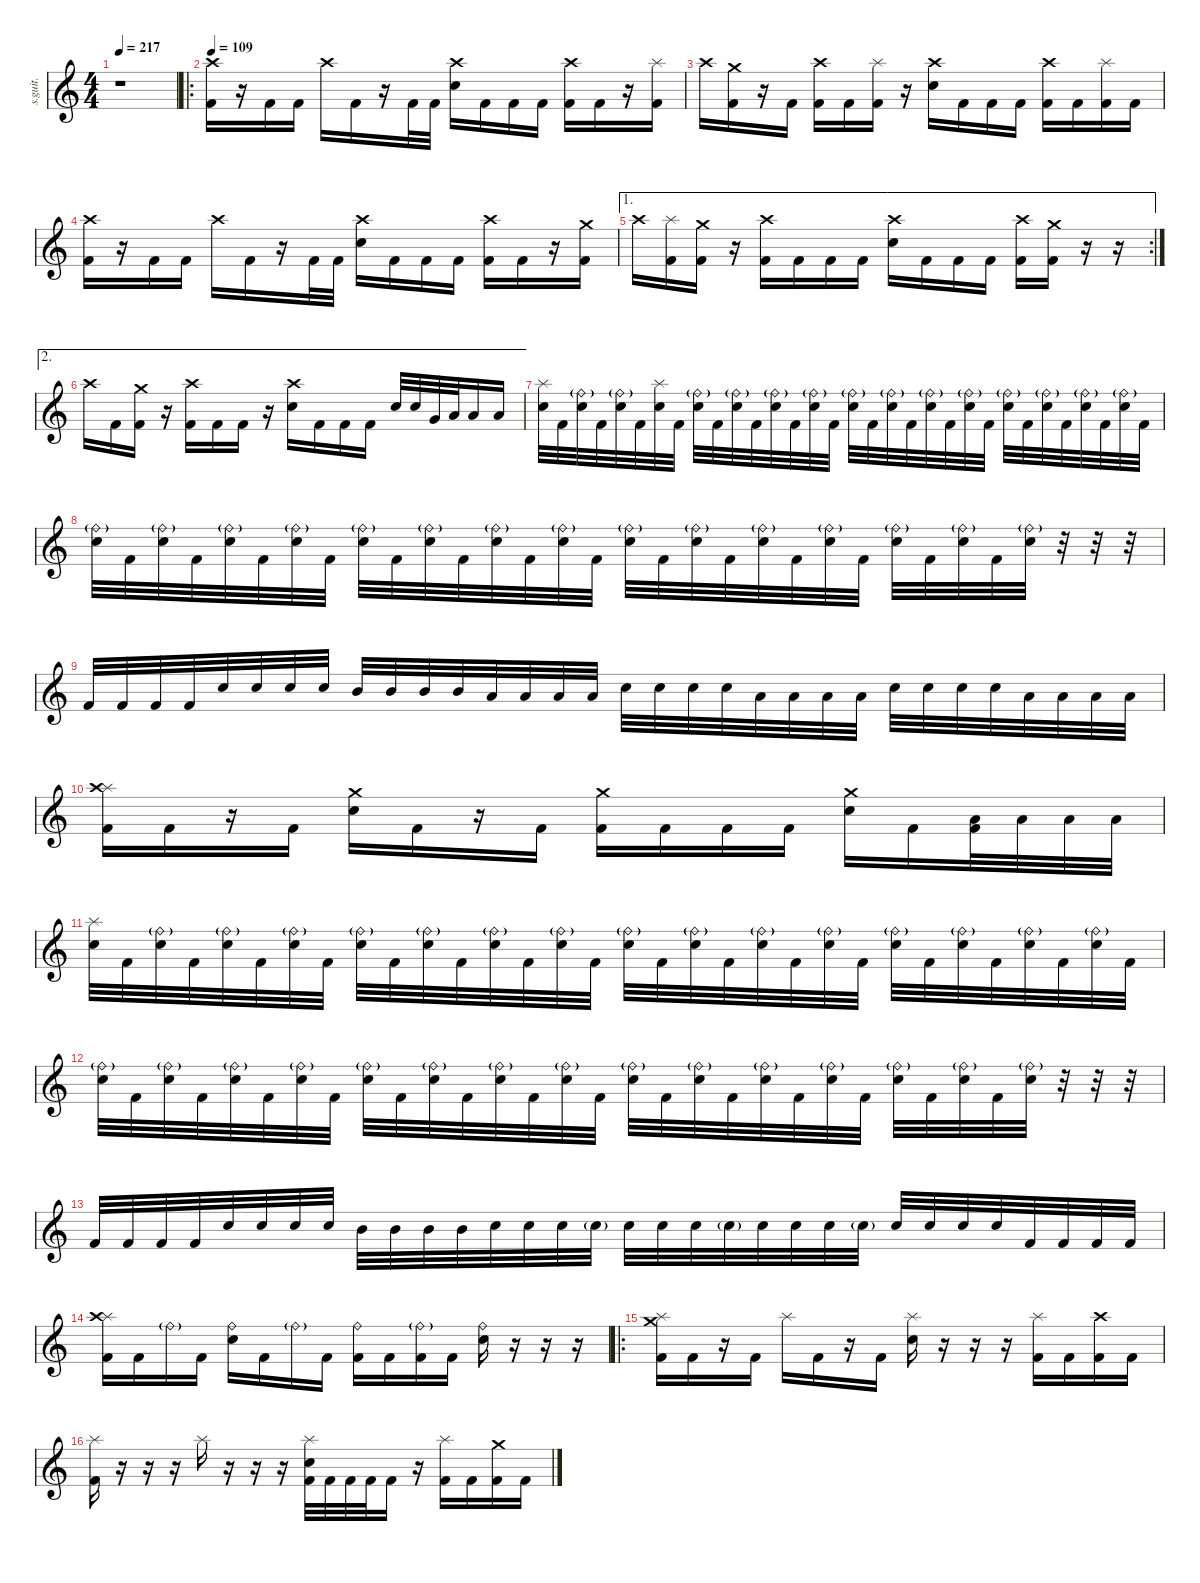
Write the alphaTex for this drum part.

\defaultSystemsLayout 4
\hideDynamics
\bracketExtendMode nobrackets
\track ("Drumkit" "s.guit.") {instrument percussion}
\staff {score}
\articulation defaults
\ts (4 4)
\tempo 217
\clef g2
\ks c
r.1{dy f} |
\ro
\tempo 109
("Crash high (hit)" "Kick (hit) 2").16{lyrics (0 "") lyrics (1 "") lyrics (2 "") lyrics (3 "") lyrics (4 "")} r.16 "Kick (hit) 2".16{lyrics (0 "") lyrics (1 "") lyrics (2 "") lyrics (3 "") lyrics (4 "")} "Kick (hit) 2".16{lyrics (0 "") lyrics (1 "") lyrics (2 "") lyrics (3 "") lyrics (4 "")} "Crash high (hit)".16{lyrics (0 "") lyrics (1 "") lyrics (2 "") lyrics (3 "") lyrics (4 "")} "Kick (hit) 2".16{lyrics (0 "") lyrics (1 "") lyrics (2 "") lyrics (3 "") lyrics (4 "")} r.16 "Kick (hit) 2".32{lyrics (0 "") lyrics (1 "") lyrics (2 "") lyrics (3 "") lyrics (4 "")} "Kick (hit) 2".32{lyrics (0 "") lyrics (1 "") lyrics (2 "") lyrics (3 "") lyrics (4 "")} ("Crash high (hit)" "Electric Snare (hit)").16{lyrics (0 "") lyrics (1 "") lyrics (2 "") lyrics (3 "") lyrics (4 "")} "Kick (hit) 2".16{lyrics (0 "") lyrics (1 "") lyrics (2 "") lyrics (3 "") lyrics (4 "")} "Kick (hit) 2".16{lyrics (0 "") lyrics (1 "") lyrics (2 "") lyrics (3 "") lyrics (4 "")} "Kick (hit) 2".16{lyrics (0 "") lyrics (1 "") lyrics (2 "") lyrics (3 "") lyrics (4 "")} ("Crash high (hit)" "Kick (hit) 2").16{lyrics (0 "") lyrics (1 "") lyrics (2 "") lyrics (3 "") lyrics (4 "")} "Kick (hit) 2".16{lyrics (0 "") lyrics (1 "") lyrics (2 "") lyrics (3 "") lyrics (4 "")} r.16 ("Splash (hit)" "Kick (hit) 2").16{lyrics (0 "") lyrics (1 "") lyrics (2 "") lyrics (3 "") lyrics (4 "")} |
"Crash high (hit)".16{lyrics (0 "") lyrics (1 "") lyrics (2 "") lyrics (3 "") lyrics (4 "")} ("Crash medium (hit)" "Kick (hit) 2").16{lyrics (0 "") lyrics (1 "") lyrics (2 "") lyrics (3 "") lyrics (4 "")} r.16 "Kick (hit) 2".16{lyrics (0 "") lyrics (1 "") lyrics (2 "") lyrics (3 "") lyrics (4 "")} ("Crash high (hit)" "Kick (hit) 2").16{lyrics (0 "") lyrics (1 "") lyrics (2 "") lyrics (3 "") lyrics (4 "")} "Kick (hit) 2".16{lyrics (0 "") lyrics (1 "") lyrics (2 "") lyrics (3 "") lyrics (4 "")} ("Splash (hit)" "Kick (hit) 2").16{lyrics (0 "") lyrics (1 "") lyrics (2 "") lyrics (3 "") lyrics (4 "")} r.16 ("Crash high (hit)" "Electric Snare (hit)").16{lyrics (0 "") lyrics (1 "") lyrics (2 "") lyrics (3 "") lyrics (4 "")} "Kick (hit) 2".16{lyrics (0 "") lyrics (1 "") lyrics (2 "") lyrics (3 "") lyrics (4 "")} "Kick (hit) 2".16{lyrics (0 "") lyrics (1 "") lyrics (2 "") lyrics (3 "") lyrics (4 "")} "Kick (hit) 2".16{lyrics (0 "") lyrics (1 "") lyrics (2 "") lyrics (3 "") lyrics (4 "")} ("Crash high (hit)" "Kick (hit) 2").16{lyrics (0 "") lyrics (1 "") lyrics (2 "") lyrics (3 "") lyrics (4 "")} "Kick (hit) 2".16{lyrics (0 "") lyrics (1 "") lyrics (2 "") lyrics (3 "") lyrics (4 "")} ("Splash (hit)" "Kick (hit) 2").16{lyrics (0 "") lyrics (1 "") lyrics (2 "") lyrics (3 "") lyrics (4 "")} "Kick (hit) 2".16{lyrics (0 "") lyrics (1 "") lyrics (2 "") lyrics (3 "") lyrics (4 "")} |
("Crash high (hit)" "Kick (hit) 2").16{lyrics (0 "") lyrics (1 "") lyrics (2 "") lyrics (3 "") lyrics (4 "")} r.16 "Kick (hit) 2".16{lyrics (0 "") lyrics (1 "") lyrics (2 "") lyrics (3 "") lyrics (4 "")} "Kick (hit) 2".16{lyrics (0 "") lyrics (1 "") lyrics (2 "") lyrics (3 "") lyrics (4 "")} "Crash high (hit)".16{lyrics (0 "") lyrics (1 "") lyrics (2 "") lyrics (3 "") lyrics (4 "")} "Kick (hit) 2".16{lyrics (0 "") lyrics (1 "") lyrics (2 "") lyrics (3 "") lyrics (4 "")} r.16 "Kick (hit) 2".32{lyrics (0 "") lyrics (1 "") lyrics (2 "") lyrics (3 "") lyrics (4 "")} "Kick (hit) 2".32{lyrics (0 "") lyrics (1 "") lyrics (2 "") lyrics (3 "") lyrics (4 "")} ("Crash high (hit)" "Electric Snare (hit)").16{lyrics (0 "") lyrics (1 "") lyrics (2 "") lyrics (3 "") lyrics (4 "")} "Kick (hit) 2".16{lyrics (0 "") lyrics (1 "") lyrics (2 "") lyrics (3 "") lyrics (4 "")} "Kick (hit) 2".16{lyrics (0 "") lyrics (1 "") lyrics (2 "") lyrics (3 "") lyrics (4 "")} "Kick (hit) 2".16{lyrics (0 "") lyrics (1 "") lyrics (2 "") lyrics (3 "") lyrics (4 "")} ("Crash high (hit)" "Kick (hit) 2").16{lyrics (0 "") lyrics (1 "") lyrics (2 "") lyrics (3 "") lyrics (4 "")} "Kick (hit) 2".16{lyrics (0 "") lyrics (1 "") lyrics (2 "") lyrics (3 "") lyrics (4 "")} r.16 ("Crash medium (hit)" "Kick (hit) 2").16{lyrics (0 "") lyrics (1 "") lyrics (2 "") lyrics (3 "") lyrics (4 "")} |
\ae 1
\rc 2 "Crash high (hit)".16{lyrics (0 "") lyrics (1 "") lyrics (2 "") lyrics (3 "") lyrics (4 "")}
("Splash (hit)" "Kick (hit) 2").16{lyrics (0 "") lyrics (1 "") lyrics (2 "") lyrics (3 "") lyrics (4 "")} ("Crash medium (hit)" "Kick (hit) 2").16{lyrics (0 "") lyrics (1 "") lyrics (2 "") lyrics (3 "") lyrics (4 "")} r.16 ("Crash high (hit)" "Kick (hit) 2").16{lyrics (0 "") lyrics (1 "") lyrics (2 "") lyrics (3 "") lyrics (4 "")} "Kick (hit) 2".16{lyrics (0 "") lyrics (1 "") lyrics (2 "") lyrics (3 "") lyrics (4 "")} "Kick (hit) 2".16{lyrics (0 "") lyrics (1 "") lyrics (2 "") lyrics (3 "") lyrics (4 "")} "Kick (hit) 2".16{lyrics (0 "") lyrics (1 "") lyrics (2 "") lyrics (3 "") lyrics (4 "")} ("Crash high (hit)" "Electric Snare (hit)").16{lyrics (0 "") lyrics (1 "") lyrics (2 "") lyrics (3 "") lyrics (4 "")} "Kick (hit) 2".16{lyrics (0 "") lyrics (1 "") lyrics (2 "") lyrics (3 "") lyrics (4 "")} "Kick (hit) 2".16{lyrics (0 "") lyrics (1 "") lyrics (2 "") lyrics (3 "") lyrics (4 "")} "Kick (hit) 2".16{lyrics (0 "") lyrics (1 "") lyrics (2 "") lyrics (3 "") lyrics (4 "")} ("Crash high (hit)" "Kick (hit) 2").16{lyrics (0 "") lyrics (1 "") lyrics (2 "") lyrics (3 "") lyrics (4 "")} ("Crash medium (hit)" "Kick (hit) 2").16{lyrics (0 "") lyrics (1 "") lyrics (2 "") lyrics (3 "") lyrics (4 "")} r.16 r.16 |
\ae 2 "Crash high (hit)".16{lyrics (0 "") lyrics (1 "") lyrics (2 "") lyrics (3 "") lyrics (4 "")} "Kick (hit) 2".16{lyrics (0 "") lyrics (1 "") lyrics (2 "") lyrics (3 "") lyrics (4 "")}
("Crash medium (hit)" "Kick (hit) 2").16{lyrics (0 "") lyrics (1 "") lyrics (2 "") lyrics (3 "") lyrics (4 "")} r.16 ("Crash high (hit)" "Kick (hit) 2").16{lyrics (0 "") lyrics (1 "") lyrics (2 "") lyrics (3 "") lyrics (4 "")} "Kick (hit) 2".16{lyrics (0 "") lyrics (1 "") lyrics (2 "") lyrics (3 "") lyrics (4 "")} "Kick (hit) 2".16{lyrics (0 "") lyrics (1 "") lyrics (2 "") lyrics (3 "") lyrics (4 "")} r.16 ("Crash high (hit)" "Electric Snare (hit)").16{lyrics (0 "") lyrics (1 "") lyrics (2 "") lyrics (3 "") lyrics (4 "")} "Kick (hit) 2".16{lyrics (0 "") lyrics (1 "") lyrics (2 "") lyrics (3 "") lyrics (4 "")} "Kick (hit) 2".16{lyrics (0 "") lyrics (1 "") lyrics (2 "") lyrics (3 "") lyrics (4 "")} "Kick (hit) 2".16{lyrics (0 "") lyrics (1 "") lyrics (2 "") lyrics (3 "") lyrics (4 "")} "Electric Snare (hit)".32{lyrics (0 "") lyrics (1 "") lyrics (2 "") lyrics (3 "") lyrics (4 "")} "Electric Snare (hit)".32{lyrics (0 "") lyrics (1 "") lyrics (2 "") lyrics (3 "") lyrics (4 "")} "Very Low Tom (hit)".32{lyrics (0 "") lyrics (1 "") lyrics (2 "") lyrics (3 "") lyrics (4 "")} "Low Floor Tom (hit)".32{lyrics (0 "") lyrics (1 "") lyrics (2 "") lyrics (3 "") lyrics (4 "")} "Low Floor Tom (hit)".16{lyrics (0 "") lyrics (1 "") lyrics (2 "") lyrics (3 "") lyrics (4 "")} "Low Floor Tom (hit)".16{lyrics (0 "") lyrics (1 "") lyrics (2 "") lyrics (3 "") lyrics (4 "")} |
("Splash (hit)" "Electric Snare (hit)").32{lyrics (0 "") lyrics (1 "") lyrics (2 "") lyrics (3 "") lyrics (4 "")} "Kick (hit) 2".32{lyrics (0 "") lyrics (1 "") lyrics (2 "") lyrics (3 "") lyrics (4 "")} ("Ride (bell)"{g} "Electric Snare (hit)").32{lyrics (0 "") lyrics (1 "") lyrics (2 "") lyrics (3 "") lyrics (4 "")} "Kick (hit) 2".32{lyrics (0 "") lyrics (1 "") lyrics (2 "") lyrics (3 "") lyrics (4 "")} ("Ride (bell)"{g} "Electric Snare (hit)").32{lyrics (0 "") lyrics (1 "") lyrics (2 "") lyrics (3 "") lyrics (4 "")} "Kick (hit) 2".32{lyrics (0 "") lyrics (1 "") lyrics (2 "") lyrics (3 "") lyrics (4 "")} ("Splash (hit)" "Electric Snare (hit)").32{lyrics (0 "") lyrics (1 "") lyrics (2 "") lyrics (3 "") lyrics (4 "")} "Kick (hit) 2".32{lyrics (0 "") lyrics (1 "") lyrics (2 "") lyrics (3 "") lyrics (4 "")} ("Ride (bell)"{g} "Electric Snare (hit)").32{lyrics (0 "") lyrics (1 "") lyrics (2 "") lyrics (3 "") lyrics (4 "")} "Kick (hit) 2".32{lyrics (0 "") lyrics (1 "") lyrics (2 "") lyrics (3 "") lyrics (4 "")} ("Ride (bell)"{g} "Electric Snare (hit)").32{lyrics (0 "") lyrics (1 "") lyrics (2 "") lyrics (3 "") lyrics (4 "")} "Kick (hit) 2".32{lyrics (0 "") lyrics (1 "") lyrics (2 "") lyrics (3 "") lyrics (4 "")} ("Ride (bell)"{g} "Electric Snare (hit)").32{lyrics (0 "") lyrics (1 "") lyrics (2 "") lyrics (3 "") lyrics (4 "")} "Kick (hit) 2".32{lyrics (0 "") lyrics (1 "") lyrics (2 "") lyrics (3 "") lyrics (4 "")} ("Ride (bell)"{g} "Electric Snare (hit)").32{lyrics (0 "") lyrics (1 "") lyrics (2 "") lyrics (3 "") lyrics (4 "")} "Kick (hit) 2".32{lyrics (0 "") lyrics (1 "") lyrics (2 "") lyrics (3 "") lyrics (4 "")} ("Ride (bell)"{g} "Electric Snare (hit)").32{lyrics (0 "") lyrics (1 "") lyrics (2 "") lyrics (3 "") lyrics (4 "")} "Kick (hit) 2".32{lyrics (0 "") lyrics (1 "") lyrics (2 "") lyrics (3 "") lyrics (4 "")} ("Ride (bell)"{g} "Electric Snare (hit)").32{lyrics (0 "") lyrics (1 "") lyrics (2 "") lyrics (3 "") lyrics (4 "")} "Kick (hit) 2".32{lyrics (0 "") lyrics (1 "") lyrics (2 "") lyrics (3 "") lyrics (4 "")} ("Ride (bell)"{g} "Electric Snare (hit)").32{lyrics (0 "") lyrics (1 "") lyrics (2 "") lyrics (3 "") lyrics (4 "")} "Kick (hit) 2".32{lyrics (0 "") lyrics (1 "") lyrics (2 "") lyrics (3 "") lyrics (4 "")} ("Ride (bell)"{g} "Electric Snare (hit)").32{lyrics (0 "") lyrics (1 "") lyrics (2 "") lyrics (3 "") lyrics (4 "")} "Kick (hit) 2".32{lyrics (0 "") lyrics (1 "") lyrics (2 "") lyrics (3 "") lyrics (4 "")} ("Ride (bell)"{g} "Electric Snare (hit)").32{lyrics (0 "") lyrics (1 "") lyrics (2 "") lyrics (3 "") lyrics (4 "")} "Kick (hit) 2".32{lyrics (0 "") lyrics (1 "") lyrics (2 "") lyrics (3 "") lyrics (4 "")} ("Ride (bell)"{g} "Electric Snare (hit)").32{lyrics (0 "") lyrics (1 "") lyrics (2 "") lyrics (3 "") lyrics (4 "")} "Kick (hit) 2".32{lyrics (0 "") lyrics (1 "") lyrics (2 "") lyrics (3 "") lyrics (4 "")} ("Ride (bell)"{g} "Electric Snare (hit)").32{lyrics (0 "") lyrics (1 "") lyrics (2 "") lyrics (3 "") lyrics (4 "")} "Kick (hit) 2".32{lyrics (0 "") lyrics (1 "") lyrics (2 "") lyrics (3 "") lyrics (4 "")} ("Ride (bell)"{g} "Electric Snare (hit)").32{lyrics (0 "") lyrics (1 "") lyrics (2 "") lyrics (3 "") lyrics (4 "")} "Kick (hit) 2".32{lyrics (0 "") lyrics (1 "") lyrics (2 "") lyrics (3 "") lyrics (4 "")} |
("Ride (bell)"{g} "Electric Snare (hit)").32{lyrics (0 "") lyrics (1 "") lyrics (2 "") lyrics (3 "") lyrics (4 "")} "Kick (hit) 2".32{lyrics (0 "") lyrics (1 "") lyrics (2 "") lyrics (3 "") lyrics (4 "")} ("Ride (bell)"{g} "Electric Snare (hit)").32{lyrics (0 "") lyrics (1 "") lyrics (2 "") lyrics (3 "") lyrics (4 "")} "Kick (hit) 2".32{lyrics (0 "") lyrics (1 "") lyrics (2 "") lyrics (3 "") lyrics (4 "")} ("Ride (bell)"{g} "Electric Snare (hit)").32{lyrics (0 "") lyrics (1 "") lyrics (2 "") lyrics (3 "") lyrics (4 "")} "Kick (hit) 2".32{lyrics (0 "") lyrics (1 "") lyrics (2 "") lyrics (3 "") lyrics (4 "")} ("Ride (bell)"{g} "Electric Snare (hit)").32{lyrics (0 "") lyrics (1 "") lyrics (2 "") lyrics (3 "") lyrics (4 "")} "Kick (hit) 2".32{lyrics (0 "") lyrics (1 "") lyrics (2 "") lyrics (3 "") lyrics (4 "")} ("Ride (bell)"{g} "Electric Snare (hit)").32{lyrics (0 "") lyrics (1 "") lyrics (2 "") lyrics (3 "") lyrics (4 "")} "Kick (hit) 2".32{lyrics (0 "") lyrics (1 "") lyrics (2 "") lyrics (3 "") lyrics (4 "")} ("Ride (bell)"{g} "Electric Snare (hit)").32{lyrics (0 "") lyrics (1 "") lyrics (2 "") lyrics (3 "") lyrics (4 "")} "Kick (hit) 2".32{lyrics (0 "") lyrics (1 "") lyrics (2 "") lyrics (3 "") lyrics (4 "")} ("Ride (bell)"{g} "Electric Snare (hit)").32{lyrics (0 "") lyrics (1 "") lyrics (2 "") lyrics (3 "") lyrics (4 "")} "Kick (hit) 2".32{lyrics (0 "") lyrics (1 "") lyrics (2 "") lyrics (3 "") lyrics (4 "")} ("Ride (bell)"{g} "Electric Snare (hit)").32{lyrics (0 "") lyrics (1 "") lyrics (2 "") lyrics (3 "") lyrics (4 "")} "Kick (hit) 2".32{lyrics (0 "") lyrics (1 "") lyrics (2 "") lyrics (3 "") lyrics (4 "")} ("Ride (bell)"{g} "Electric Snare (hit)").32{lyrics (0 "") lyrics (1 "") lyrics (2 "") lyrics (3 "") lyrics (4 "")} "Kick (hit) 2".32{lyrics (0 "") lyrics (1 "") lyrics (2 "") lyrics (3 "") lyrics (4 "")} ("Ride (bell)"{g} "Electric Snare (hit)").32{lyrics (0 "") lyrics (1 "") lyrics (2 "") lyrics (3 "") lyrics (4 "")} "Kick (hit) 2".32{lyrics (0 "") lyrics (1 "") lyrics (2 "") lyrics (3 "") lyrics (4 "")} ("Ride (bell)"{g} "Electric Snare (hit)").32{lyrics (0 "") lyrics (1 "") lyrics (2 "") lyrics (3 "") lyrics (4 "")} "Kick (hit) 2".32{lyrics (0 "") lyrics (1 "") lyrics (2 "") lyrics (3 "") lyrics (4 "")} ("Ride (bell)"{g} "Electric Snare (hit)").32{lyrics (0 "") lyrics (1 "") lyrics (2 "") lyrics (3 "") lyrics (4 "")} "Kick (hit) 2".32{lyrics (0 "") lyrics (1 "") lyrics (2 "") lyrics (3 "") lyrics (4 "")} ("Ride (bell)"{g} "Electric Snare (hit)").32{lyrics (0 "") lyrics (1 "") lyrics (2 "") lyrics (3 "") lyrics (4 "")} "Kick (hit) 2".32{lyrics (0 "") lyrics (1 "") lyrics (2 "") lyrics (3 "") lyrics (4 "")} ("Ride (bell)"{g} "Electric Snare (hit)").32{lyrics (0 "") lyrics (1 "") lyrics (2 "") lyrics (3 "") lyrics (4 "")} "Kick (hit) 2".32{lyrics (0 "") lyrics (1 "") lyrics (2 "") lyrics (3 "") lyrics (4 "")} ("Ride (bell)"{g} "Electric Snare (hit)").32{lyrics (0 "") lyrics (1 "") lyrics (2 "") lyrics (3 "") lyrics (4 "")} r.32 r.32 r.32 |
"Kick (hit) 2".32{lyrics (0 "") lyrics (1 "") lyrics (2 "") lyrics (3 "") lyrics (4 "")} "Kick (hit) 2".32{lyrics (0 "") lyrics (1 "") lyrics (2 "") lyrics (3 "") lyrics (4 "")} "Kick (hit) 2".32{lyrics (0 "") lyrics (1 "") lyrics (2 "") lyrics (3 "") lyrics (4 "")} "Kick (hit) 2".32{lyrics (0 "") lyrics (1 "") lyrics (2 "") lyrics (3 "") lyrics (4 "")} "Electric Snare (hit)".32{lyrics (0 "") lyrics (1 "") lyrics (2 "") lyrics (3 "") lyrics (4 "")} "Electric Snare (hit)".32{lyrics (0 "") lyrics (1 "") lyrics (2 "") lyrics (3 "") lyrics (4 "")} "Electric Snare (hit)".32{lyrics (0 "") lyrics (1 "") lyrics (2 "") lyrics (3 "") lyrics (4 "")} "Electric Snare (hit)".32{lyrics (0 "") lyrics (1 "") lyrics (2 "") lyrics (3 "") lyrics (4 "")} "Mid Tom (hit)".32{lyrics (0 "") lyrics (1 "") lyrics (2 "") lyrics (3 "") lyrics (4 "")} "Mid Tom (hit)".32{lyrics (0 "") lyrics (1 "") lyrics (2 "") lyrics (3 "") lyrics (4 "")} "Mid Tom (hit)".32{lyrics (0 "") lyrics (1 "") lyrics (2 "") lyrics (3 "") lyrics (4 "")} "Mid Tom (hit)".32{lyrics (0 "") lyrics (1 "") lyrics (2 "") lyrics (3 "") lyrics (4 "")} "Low Tom (hit)".32{lyrics (0 "") lyrics (1 "") lyrics (2 "") lyrics (3 "") lyrics (4 "")} "Low Tom (hit)".32{lyrics (0 "") lyrics (1 "") lyrics (2 "") lyrics (3 "") lyrics (4 "")} "Low Tom (hit)".32{lyrics (0 "") lyrics (1 "") lyrics (2 "") lyrics (3 "") lyrics (4 "")} "Low Tom (hit)".32{lyrics (0 "") lyrics (1 "") lyrics (2 "") lyrics (3 "") lyrics (4 "")} "Electric Snare (hit)".32{lyrics (0 "") lyrics (1 "") lyrics (2 "") lyrics (3 "") lyrics (4 "")} "Electric Snare (hit)".32{lyrics (0 "") lyrics (1 "") lyrics (2 "") lyrics (3 "") lyrics (4 "")} "Electric Snare (hit)".32{lyrics (0 "") lyrics (1 "") lyrics (2 "") lyrics (3 "") lyrics (4 "")} "Electric Snare (hit)".32{lyrics (0 "") lyrics (1 "") lyrics (2 "") lyrics (3 "") lyrics (4 "")} "Low Tom (hit)".32{lyrics (0 "") lyrics (1 "") lyrics (2 "") lyrics (3 "") lyrics (4 "")} "Low Tom (hit)".32{lyrics (0 "") lyrics (1 "") lyrics (2 "") lyrics (3 "") lyrics (4 "")} "Low Tom (hit)".32{lyrics (0 "") lyrics (1 "") lyrics (2 "") lyrics (3 "") lyrics (4 "")} "Low Tom (hit)".32{lyrics (0 "") lyrics (1 "") lyrics (2 "") lyrics (3 "") lyrics (4 "")} "Electric Snare (hit)".32{lyrics (0 "") lyrics (1 "") lyrics (2 "") lyrics (3 "") lyrics (4 "")} "Electric Snare (hit)".32{lyrics (0 "") lyrics (1 "") lyrics (2 "") lyrics (3 "") lyrics (4 "")} "Electric Snare (hit)".32{lyrics (0 "") lyrics (1 "") lyrics (2 "") lyrics (3 "") lyrics (4 "")} "Electric Snare (hit)".32{lyrics (0 "") lyrics (1 "") lyrics (2 "") lyrics (3 "") lyrics (4 "")} "Low Floor Tom (hit)".32{lyrics (0 "") lyrics (1 "") lyrics (2 "") lyrics (3 "") lyrics (4 "")} "Low Floor Tom (hit)".32{lyrics (0 "") lyrics (1 "") lyrics (2 "") lyrics (3 "") lyrics (4 "")} "Low Floor Tom (hit)".32{lyrics (0 "") lyrics (1 "") lyrics (2 "") lyrics (3 "") lyrics (4 "")} "Low Floor Tom (hit)".32{lyrics (0 "") lyrics (1 "") lyrics (2 "") lyrics (3 "") lyrics (4 "")} |
("Splash (hit)" "Crash high (hit)" "Kick (hit) 2").16{lyrics (0 "") lyrics (1 "") lyrics (2 "") lyrics (3 "") lyrics (4 "")} "Kick (hit) 2".16{lyrics (0 "") lyrics (1 "") lyrics (2 "") lyrics (3 "") lyrics (4 "")} r.16 "Kick (hit) 2".16{lyrics (0 "") lyrics (1 "") lyrics (2 "") lyrics (3 "") lyrics (4 "")} ("Crash medium (hit)" "Electric Snare (hit)").16{lyrics (0 "") lyrics (1 "") lyrics (2 "") lyrics (3 "") lyrics (4 "")} "Kick (hit) 2".16{lyrics (0 "") lyrics (1 "") lyrics (2 "") lyrics (3 "") lyrics (4 "")} r.16 "Kick (hit) 2".16{lyrics (0 "") lyrics (1 "") lyrics (2 "") lyrics (3 "") lyrics (4 "")} ("Crash medium (hit)" "Kick (hit) 2").16{lyrics (0 "") lyrics (1 "") lyrics (2 "") lyrics (3 "") lyrics (4 "")} "Kick (hit) 2".16{lyrics (0 "") lyrics (1 "") lyrics (2 "") lyrics (3 "") lyrics (4 "")} "Kick (hit) 2".16{lyrics (0 "") lyrics (1 "") lyrics (2 "") lyrics (3 "") lyrics (4 "")} "Kick (hit) 2".16{lyrics (0 "") lyrics (1 "") lyrics (2 "") lyrics (3 "") lyrics (4 "")} ("Crash medium (hit)" "Electric Snare (hit)").16{lyrics (0 "") lyrics (1 "") lyrics (2 "") lyrics (3 "") lyrics (4 "")} "Kick (hit) 2".16{lyrics (0 "") lyrics (1 "") lyrics (2 "") lyrics (3 "") lyrics (4 "")} ("Low Floor Tom (hit)" "Kick (hit) 2").32{lyrics (0 "") lyrics (1 "") lyrics (2 "") lyrics (3 "") lyrics (4 "")} "Low Floor Tom (hit)".32{lyrics (0 "") lyrics (1 "") lyrics (2 "") lyrics (3 "") lyrics (4 "")} "Low Floor Tom (hit)".32{lyrics (0 "") lyrics (1 "") lyrics (2 "") lyrics (3 "") lyrics (4 "")} "Low Floor Tom (hit)".32{lyrics (0 "") lyrics (1 "") lyrics (2 "") lyrics (3 "") lyrics (4 "")} |
("Splash (hit)" "Electric Snare (hit)").32{lyrics (0 "") lyrics (1 "") lyrics (2 "") lyrics (3 "") lyrics (4 "")} "Kick (hit) 2".32{lyrics (0 "") lyrics (1 "") lyrics (2 "") lyrics (3 "") lyrics (4 "")} ("Ride (bell)"{g} "Electric Snare (hit)").32{lyrics (0 "") lyrics (1 "") lyrics (2 "") lyrics (3 "") lyrics (4 "")} "Kick (hit) 2".32{lyrics (0 "") lyrics (1 "") lyrics (2 "") lyrics (3 "") lyrics (4 "")} ("Ride (bell)"{g} "Electric Snare (hit)").32{lyrics (0 "") lyrics (1 "") lyrics (2 "") lyrics (3 "") lyrics (4 "")} "Kick (hit) 2".32{lyrics (0 "") lyrics (1 "") lyrics (2 "") lyrics (3 "") lyrics (4 "")} ("Ride (bell)"{g} "Electric Snare (hit)").32{lyrics (0 "") lyrics (1 "") lyrics (2 "") lyrics (3 "") lyrics (4 "")} "Kick (hit) 2".32{lyrics (0 "") lyrics (1 "") lyrics (2 "") lyrics (3 "") lyrics (4 "")} ("Ride (bell)"{g} "Electric Snare (hit)").32{lyrics (0 "") lyrics (1 "") lyrics (2 "") lyrics (3 "") lyrics (4 "")} "Kick (hit) 2".32{lyrics (0 "") lyrics (1 "") lyrics (2 "") lyrics (3 "") lyrics (4 "")} ("Ride (bell)"{g} "Electric Snare (hit)").32{lyrics (0 "") lyrics (1 "") lyrics (2 "") lyrics (3 "") lyrics (4 "")} "Kick (hit) 2".32{lyrics (0 "") lyrics (1 "") lyrics (2 "") lyrics (3 "") lyrics (4 "")} ("Ride (bell)"{g} "Electric Snare (hit)").32{lyrics (0 "") lyrics (1 "") lyrics (2 "") lyrics (3 "") lyrics (4 "")} "Kick (hit) 2".32{lyrics (0 "") lyrics (1 "") lyrics (2 "") lyrics (3 "") lyrics (4 "")} ("Ride (bell)"{g} "Electric Snare (hit)").32{lyrics (0 "") lyrics (1 "") lyrics (2 "") lyrics (3 "") lyrics (4 "")} "Kick (hit) 2".32{lyrics (0 "") lyrics (1 "") lyrics (2 "") lyrics (3 "") lyrics (4 "")} ("Ride (bell)"{g} "Electric Snare (hit)").32{lyrics (0 "") lyrics (1 "") lyrics (2 "") lyrics (3 "") lyrics (4 "")} "Kick (hit) 2".32{lyrics (0 "") lyrics (1 "") lyrics (2 "") lyrics (3 "") lyrics (4 "")} ("Ride (bell)"{g} "Electric Snare (hit)").32{lyrics (0 "") lyrics (1 "") lyrics (2 "") lyrics (3 "") lyrics (4 "")} "Kick (hit) 2".32{lyrics (0 "") lyrics (1 "") lyrics (2 "") lyrics (3 "") lyrics (4 "")} ("Ride (bell)"{g} "Electric Snare (hit)").32{lyrics (0 "") lyrics (1 "") lyrics (2 "") lyrics (3 "") lyrics (4 "")} "Kick (hit) 2".32{lyrics (0 "") lyrics (1 "") lyrics (2 "") lyrics (3 "") lyrics (4 "")} ("Ride (bell)"{g} "Electric Snare (hit)").32{lyrics (0 "") lyrics (1 "") lyrics (2 "") lyrics (3 "") lyrics (4 "")} "Kick (hit) 2".32{lyrics (0 "") lyrics (1 "") lyrics (2 "") lyrics (3 "") lyrics (4 "")} ("Ride (bell)"{g} "Electric Snare (hit)").32{lyrics (0 "") lyrics (1 "") lyrics (2 "") lyrics (3 "") lyrics (4 "")} "Kick (hit) 2".32{lyrics (0 "") lyrics (1 "") lyrics (2 "") lyrics (3 "") lyrics (4 "")} ("Ride (bell)"{g} "Electric Snare (hit)").32{lyrics (0 "") lyrics (1 "") lyrics (2 "") lyrics (3 "") lyrics (4 "")} "Kick (hit) 2".32{lyrics (0 "") lyrics (1 "") lyrics (2 "") lyrics (3 "") lyrics (4 "")} ("Ride (bell)"{g} "Electric Snare (hit)").32{lyrics (0 "") lyrics (1 "") lyrics (2 "") lyrics (3 "") lyrics (4 "")} "Kick (hit) 2".32{lyrics (0 "") lyrics (1 "") lyrics (2 "") lyrics (3 "") lyrics (4 "")} ("Ride (bell)"{g} "Electric Snare (hit)").32{lyrics (0 "") lyrics (1 "") lyrics (2 "") lyrics (3 "") lyrics (4 "")} "Kick (hit) 2".32{lyrics (0 "") lyrics (1 "") lyrics (2 "") lyrics (3 "") lyrics (4 "")} |
("Ride (bell)"{g} "Electric Snare (hit)").32{lyrics (0 "") lyrics (1 "") lyrics (2 "") lyrics (3 "") lyrics (4 "")} "Kick (hit) 2".32{lyrics (0 "") lyrics (1 "") lyrics (2 "") lyrics (3 "") lyrics (4 "")} ("Ride (bell)"{g} "Electric Snare (hit)").32{lyrics (0 "") lyrics (1 "") lyrics (2 "") lyrics (3 "") lyrics (4 "")} "Kick (hit) 2".32{lyrics (0 "") lyrics (1 "") lyrics (2 "") lyrics (3 "") lyrics (4 "")} ("Ride (bell)"{g} "Electric Snare (hit)").32{lyrics (0 "") lyrics (1 "") lyrics (2 "") lyrics (3 "") lyrics (4 "")} "Kick (hit) 2".32{lyrics (0 "") lyrics (1 "") lyrics (2 "") lyrics (3 "") lyrics (4 "")} ("Ride (bell)"{g} "Electric Snare (hit)").32{lyrics (0 "") lyrics (1 "") lyrics (2 "") lyrics (3 "") lyrics (4 "")} "Kick (hit) 2".32{lyrics (0 "") lyrics (1 "") lyrics (2 "") lyrics (3 "") lyrics (4 "")} ("Ride (bell)"{g} "Electric Snare (hit)").32{lyrics (0 "") lyrics (1 "") lyrics (2 "") lyrics (3 "") lyrics (4 "")} "Kick (hit) 2".32{lyrics (0 "") lyrics (1 "") lyrics (2 "") lyrics (3 "") lyrics (4 "")} ("Ride (bell)"{g} "Electric Snare (hit)").32{lyrics (0 "") lyrics (1 "") lyrics (2 "") lyrics (3 "") lyrics (4 "")} "Kick (hit) 2".32{lyrics (0 "") lyrics (1 "") lyrics (2 "") lyrics (3 "") lyrics (4 "")} ("Ride (bell)"{g} "Electric Snare (hit)").32{lyrics (0 "") lyrics (1 "") lyrics (2 "") lyrics (3 "") lyrics (4 "")} "Kick (hit) 2".32{lyrics (0 "") lyrics (1 "") lyrics (2 "") lyrics (3 "") lyrics (4 "")} ("Ride (bell)"{g} "Electric Snare (hit)").32{lyrics (0 "") lyrics (1 "") lyrics (2 "") lyrics (3 "") lyrics (4 "")} "Kick (hit) 2".32{lyrics (0 "") lyrics (1 "") lyrics (2 "") lyrics (3 "") lyrics (4 "")} ("Ride (bell)"{g} "Electric Snare (hit)").32{lyrics (0 "") lyrics (1 "") lyrics (2 "") lyrics (3 "") lyrics (4 "")} "Kick (hit) 2".32{lyrics (0 "") lyrics (1 "") lyrics (2 "") lyrics (3 "") lyrics (4 "")} ("Ride (bell)"{g} "Electric Snare (hit)").32{lyrics (0 "") lyrics (1 "") lyrics (2 "") lyrics (3 "") lyrics (4 "")} "Kick (hit) 2".32{lyrics (0 "") lyrics (1 "") lyrics (2 "") lyrics (3 "") lyrics (4 "")} ("Ride (bell)"{g} "Electric Snare (hit)").32{lyrics (0 "") lyrics (1 "") lyrics (2 "") lyrics (3 "") lyrics (4 "")} "Kick (hit) 2".32{lyrics (0 "") lyrics (1 "") lyrics (2 "") lyrics (3 "") lyrics (4 "")} ("Ride (bell)"{g} "Electric Snare (hit)").32{lyrics (0 "") lyrics (1 "") lyrics (2 "") lyrics (3 "") lyrics (4 "")} "Kick (hit) 2".32{lyrics (0 "") lyrics (1 "") lyrics (2 "") lyrics (3 "") lyrics (4 "")} ("Ride (bell)"{g} "Electric Snare (hit)").32{lyrics (0 "") lyrics (1 "") lyrics (2 "") lyrics (3 "") lyrics (4 "")} "Kick (hit) 2".32{lyrics (0 "") lyrics (1 "") lyrics (2 "") lyrics (3 "") lyrics (4 "")} ("Ride (bell)"{g} "Electric Snare (hit)").32{lyrics (0 "") lyrics (1 "") lyrics (2 "") lyrics (3 "") lyrics (4 "")} "Kick (hit) 2".32{lyrics (0 "") lyrics (1 "") lyrics (2 "") lyrics (3 "") lyrics (4 "")} ("Ride (bell)"{g} "Electric Snare (hit)").32{lyrics (0 "") lyrics (1 "") lyrics (2 "") lyrics (3 "") lyrics (4 "")} r.32 r.32 r.32 |
"Kick (hit) 2".32{lyrics (0 "") lyrics (1 "") lyrics (2 "") lyrics (3 "") lyrics (4 "")} "Kick (hit) 2".32{lyrics (0 "") lyrics (1 "") lyrics (2 "") lyrics (3 "") lyrics (4 "")} "Kick (hit) 2".32{lyrics (0 "") lyrics (1 "") lyrics (2 "") lyrics (3 "") lyrics (4 "")} "Kick (hit) 2".32{lyrics (0 "") lyrics (1 "") lyrics (2 "") lyrics (3 "") lyrics (4 "")} "Electric Snare (hit)".32{lyrics (0 "") lyrics (1 "") lyrics (2 "") lyrics (3 "") lyrics (4 "")} "Electric Snare (hit)".32{lyrics (0 "") lyrics (1 "") lyrics (2 "") lyrics (3 "") lyrics (4 "")} "Electric Snare (hit)".32{lyrics (0 "") lyrics (1 "") lyrics (2 "") lyrics (3 "") lyrics (4 "")} "Electric Snare (hit)".32{lyrics (0 "") lyrics (1 "") lyrics (2 "") lyrics (3 "") lyrics (4 "")} "Mid Tom (hit)".32{lyrics (0 "") lyrics (1 "") lyrics (2 "") lyrics (3 "") lyrics (4 "")} "Mid Tom (hit)".32{lyrics (0 "") lyrics (1 "") lyrics (2 "") lyrics (3 "") lyrics (4 "")} "Mid Tom (hit)".32{lyrics (0 "") lyrics (1 "") lyrics (2 "") lyrics (3 "") lyrics (4 "")} "Mid Tom (hit)".32{lyrics (0 "") lyrics (1 "") lyrics (2 "") lyrics (3 "") lyrics (4 "")} "Electric Snare (hit)".32{lyrics (0 "") lyrics (1 "") lyrics (2 "") lyrics (3 "") lyrics (4 "")} "Electric Snare (hit)".32{lyrics (0 "") lyrics (1 "") lyrics (2 "") lyrics (3 "") lyrics (4 "")} "Electric Snare (hit)".32{lyrics (0 "") lyrics (1 "") lyrics (2 "") lyrics (3 "") lyrics (4 "")} "Electric Snare (hit)"{g}.32{lyrics (0 "") lyrics (1 "") lyrics (2 "") lyrics (3 "") lyrics (4 "") dy mp} "Electric Snare (hit)".32{lyrics (0 "") lyrics (1 "") lyrics (2 "") lyrics (3 "") lyrics (4 "") dy f} "Electric Snare (hit)".32{lyrics (0 "") lyrics (1 "") lyrics (2 "") lyrics (3 "") lyrics (4 "")} "Electric Snare (hit)".32{lyrics (0 "") lyrics (1 "") lyrics (2 "") lyrics (3 "") lyrics (4 "")} "Electric Snare (hit)"{g}.32{lyrics (0 "") lyrics (1 "") lyrics (2 "") lyrics (3 "") lyrics (4 "") dy mp} "Electric Snare (hit)".32{lyrics (0 "") lyrics (1 "") lyrics (2 "") lyrics (3 "") lyrics (4 "") dy f} "Electric Snare (hit)".32{lyrics (0 "") lyrics (1 "") lyrics (2 "") lyrics (3 "") lyrics (4 "")} "Electric Snare (hit)".32{lyrics (0 "") lyrics (1 "") lyrics (2 "") lyrics (3 "") lyrics (4 "")} "Electric Snare (hit)"{g}.32{lyrics (0 "") lyrics (1 "") lyrics (2 "") lyrics (3 "") lyrics (4 "") dy mp} "Electric Snare (hit)".32{lyrics (0 "") lyrics (1 "") lyrics (2 "") lyrics (3 "") lyrics (4 "") dy f} "Electric Snare (hit)".32{lyrics (0 "") lyrics (1 "") lyrics (2 "") lyrics (3 "") lyrics (4 "")} "Electric Snare (hit)".32{lyrics (0 "") lyrics (1 "") lyrics (2 "") lyrics (3 "") lyrics (4 "")} "Electric Snare (hit)".32{lyrics (0 "") lyrics (1 "") lyrics (2 "") lyrics (3 "") lyrics (4 "")} "Kick (hit) 2".32{lyrics (0 "") lyrics (1 "") lyrics (2 "") lyrics (3 "") lyrics (4 "")} "Kick (hit) 2".32{lyrics (0 "") lyrics (1 "") lyrics (2 "") lyrics (3 "") lyrics (4 "")} "Kick (hit) 2".32{lyrics (0 "") lyrics (1 "") lyrics (2 "") lyrics (3 "") lyrics (4 "")} "Kick (hit) 2".32{lyrics (0 "") lyrics (1 "") lyrics (2 "") lyrics (3 "") lyrics (4 "")} |
("Splash (hit)" "Crash high (hit)" "Kick (hit) 2").16{lyrics (0 "") lyrics (1 "") lyrics (2 "") lyrics (3 "") lyrics (4 "")} "Kick (hit) 2".16{lyrics (0 "") lyrics (1 "") lyrics (2 "") lyrics (3 "") lyrics (4 "")} "Ride (bell)"{g}.16{lyrics (0 "") lyrics (1 "") lyrics (2 "") lyrics (3 "") lyrics (4 "") dy mp} "Kick (hit) 2".16{lyrics (0 "") lyrics (1 "") lyrics (2 "") lyrics (3 "") lyrics (4 "") dy f} ("Ride (bell)" "Electric Snare (hit)").16{lyrics (0 "") lyrics (1 "") lyrics (2 "") lyrics (3 "") lyrics (4 "")} "Kick (hit) 2".16{lyrics (0 "") lyrics (1 "") lyrics (2 "") lyrics (3 "") lyrics (4 "")} "Ride (bell)"{g}.16{lyrics (0 "") lyrics (1 "") lyrics (2 "") lyrics (3 "") lyrics (4 "") dy mp} "Kick (hit) 2".16{lyrics (0 "") lyrics (1 "") lyrics (2 "") lyrics (3 "") lyrics (4 "") dy f} ("Ride (bell)" "Kick (hit) 2").16{lyrics (0 "") lyrics (1 "") lyrics (2 "") lyrics (3 "") lyrics (4 "")} "Kick (hit) 2".16{lyrics (0 "") lyrics (1 "") lyrics (2 "") lyrics (3 "") lyrics (4 "")} ("Ride (bell)"{g} "Kick (hit) 2").16{lyrics (0 "") lyrics (1 "") lyrics (2 "") lyrics (3 "") lyrics (4 "")} "Kick (hit) 2".16{lyrics (0 "") lyrics (1 "") lyrics (2 "") lyrics (3 "") lyrics (4 "")} ("Ride (bell)" "Electric Snare (hit)").16{lyrics (0 "") lyrics (1 "") lyrics (2 "") lyrics (3 "") lyrics (4 "")} r.16 r.16 r.16 |
\ro
("Crash medium (hit)" "Splash (hit)" "Kick (hit) 2").16{lyrics (0 "") lyrics (1 "") lyrics (2 "") lyrics (3 "") lyrics (4 "")} "Kick (hit) 2".16{lyrics (0 "") lyrics (1 "") lyrics (2 "") lyrics (3 "") lyrics (4 "")} r.16 "Kick (hit) 2".16{lyrics (0 "") lyrics (1 "") lyrics (2 "") lyrics (3 "") lyrics (4 "")} "Splash (hit)".16{lyrics (0 "") lyrics (1 "") lyrics (2 "") lyrics (3 "") lyrics (4 "")} "Kick (hit) 2".16{lyrics (0 "") lyrics (1 "") lyrics (2 "") lyrics (3 "") lyrics (4 "")} r.16 "Kick (hit) 2".16{lyrics (0 "") lyrics (1 "") lyrics (2 "") lyrics (3 "") lyrics (4 "")} ("Splash (hit)" "Electric Snare (hit)").16{lyrics (0 "") lyrics (1 "") lyrics (2 "") lyrics (3 "") lyrics (4 "")} r.16 r.16 r.16 ("Splash (hit)" "Kick (hit) 2").16{lyrics (0 "") lyrics (1 "") lyrics (2 "") lyrics (3 "") lyrics (4 "")} "Kick (hit) 2".16{lyrics (0 "") lyrics (1 "") lyrics (2 "") lyrics (3 "") lyrics (4 "")} ("Crash high (hit)" "Kick (hit) 2").16{lyrics (0 "") lyrics (1 "") lyrics (2 "") lyrics (3 "") lyrics (4 "")} "Kick (hit) 2".16{lyrics (0 "") lyrics (1 "") lyrics (2 "") lyrics (3 "") lyrics (4 "")} |
("Splash (hit)" "Kick (hit) 2").16{lyrics (0 "") lyrics (1 "") lyrics (2 "") lyrics (3 "") lyrics (4 "")} r.16 r.16 r.16 "Splash (hit)".16{lyrics (0 "") lyrics (1 "") lyrics (2 "") lyrics (3 "") lyrics (4 "")} r.16 r.16 r.16 ("Splash (hit)" "Electric Snare (hit)" "Kick (hit) 2").32{lyrics (0 "") lyrics (1 "") lyrics (2 "") lyrics (3 "") lyrics (4 "")} "Kick (hit) 2".32{lyrics (0 "") lyrics (1 "") lyrics (2 "") lyrics (3 "") lyrics (4 "")} "Kick (hit) 2".32{lyrics (0 "") lyrics (1 "") lyrics (2 "") lyrics (3 "") lyrics (4 "")} "Kick (hit) 2".32{lyrics (0 "") lyrics (1 "") lyrics (2 "") lyrics (3 "") lyrics (4 "")} "Kick (hit) 2".16{lyrics (0 "") lyrics (1 "") lyrics (2 "") lyrics (3 "") lyrics (4 "")} r.16 ("Splash (hit)" "Kick (hit) 2").16{lyrics (0 "") lyrics (1 "") lyrics (2 "") lyrics (3 "") lyrics (4 "")} "Kick (hit) 2".16{lyrics (0 "") lyrics (1 "") lyrics (2 "") lyrics (3 "") lyrics (4 "")} ("Crash medium (hit)" "Kick (hit) 2").16{lyrics (0 "") lyrics (1 "") lyrics (2 "") lyrics (3 "") lyrics (4 "")} "Kick (hit) 2".16{lyrics (0 "") lyrics (1 "") lyrics (2 "") lyrics (3 "") lyrics (4 "")}
